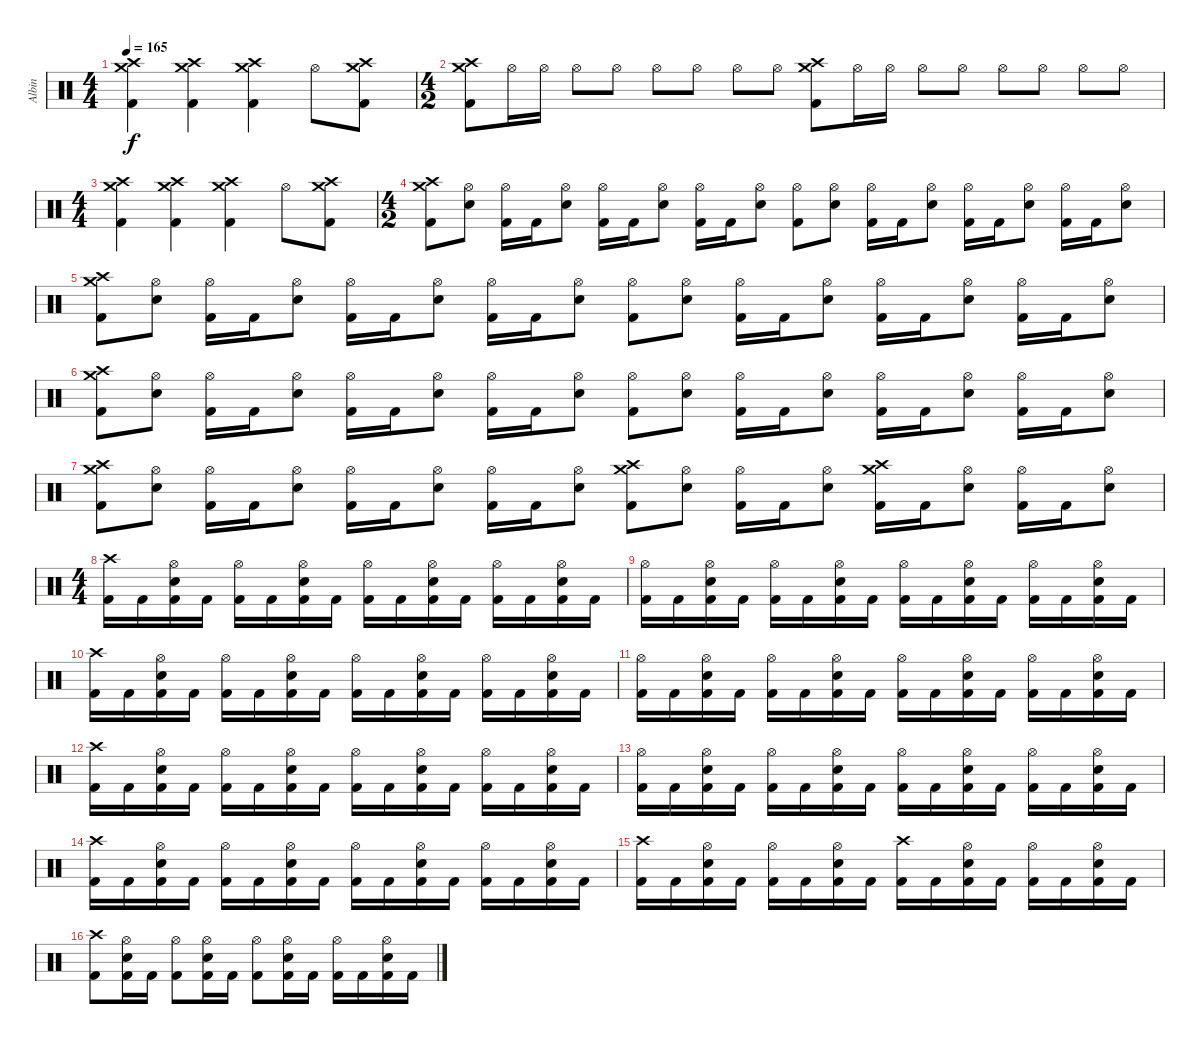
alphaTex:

\track ("Albin" "Albin") {instrument percussion}
\staff {score}
\articulation defaults
\ts (4 4)
\tempo 165
\clef neutral
\ks c
("Kick (hit) 2" "Crash high (hit)" "Crash medium (hit)").4{dy f} ("Kick (hit) 2" "Crash high (hit)" "Crash medium (hit)").4 ("Kick (hit) 2" "Crash high (hit)" "Crash medium (hit)").4 "Hi-Hat (open)".8 ("Kick (hit) 2" "Crash high (hit)" "Crash medium (hit)").8 |
\ts (4 2)
("Kick (hit) 2" "Crash high (hit)" "Crash medium (hit)").8 "Hi-Hat (open)".16 "Hi-Hat (open)".16 "Hi-Hat (open)".8 "Hi-Hat (open)".8 "Hi-Hat (open)".8 "Hi-Hat (open)".8 "Hi-Hat (open)".8 "Hi-Hat (open)".8 ("Kick (hit) 2" "Crash high (hit)" "Crash medium (hit)").8 "Hi-Hat (open)".16 "Hi-Hat (open)".16 "Hi-Hat (open)".8 "Hi-Hat (open)".8 "Hi-Hat (open)".8 "Hi-Hat (open)".8 "Hi-Hat (open)".8 "Hi-Hat (open)".8 |
\ts (4 4)
("Kick (hit) 2" "Crash high (hit)" "Crash medium (hit)").4 ("Kick (hit) 2" "Crash high (hit)" "Crash medium (hit)").4 ("Kick (hit) 2" "Crash high (hit)" "Crash medium (hit)").4 "Hi-Hat (open)".8 ("Kick (hit) 2" "Crash high (hit)" "Crash medium (hit)").8 |
\ts (4 2)
("Kick (hit) 2" "Crash high (hit)" "Crash medium (hit)").8 ("Electric Snare (hit)" "Hi-Hat (open)").8 ("Kick (hit) 2" "Hi-Hat (open)").16 "Kick (hit) 2".16 ("Electric Snare (hit)" "Hi-Hat (open)").8 ("Kick (hit) 2" "Hi-Hat (open)").16 "Kick (hit) 2".16 ("Electric Snare (hit)" "Hi-Hat (open)").8 ("Kick (hit) 2" "Hi-Hat (open)").16 "Kick (hit) 2".16 ("Electric Snare (hit)" "Hi-Hat (open)").8 ("Kick (hit) 2" "Hi-Hat (open)").8 ("Electric Snare (hit)" "Hi-Hat (open)").8 ("Kick (hit) 2" "Hi-Hat (open)").16 "Kick (hit) 2".16 ("Electric Snare (hit)" "Hi-Hat (open)").8 ("Kick (hit) 2" "Hi-Hat (open)").16 "Kick (hit) 2".16 ("Electric Snare (hit)" "Hi-Hat (open)").8 ("Kick (hit) 2" "Hi-Hat (open)").16 "Kick (hit) 2".16 ("Electric Snare (hit)" "Hi-Hat (open)").8 |
("Kick (hit) 2" "Crash high (hit)" "Crash medium (hit)").8 ("Electric Snare (hit)" "Hi-Hat (open)").8 ("Kick (hit) 2" "Hi-Hat (open)").16 "Kick (hit) 2".16 ("Electric Snare (hit)" "Hi-Hat (open)").8 ("Kick (hit) 2" "Hi-Hat (open)").16 "Kick (hit) 2".16 ("Electric Snare (hit)" "Hi-Hat (open)").8 ("Kick (hit) 2" "Hi-Hat (open)").16 "Kick (hit) 2".16 ("Electric Snare (hit)" "Hi-Hat (open)").8 ("Kick (hit) 2" "Hi-Hat (open)").8 ("Electric Snare (hit)" "Hi-Hat (open)").8 ("Kick (hit) 2" "Hi-Hat (open)").16 "Kick (hit) 2".16 ("Electric Snare (hit)" "Hi-Hat (open)").8 ("Kick (hit) 2" "Hi-Hat (open)").16 "Kick (hit) 2".16 ("Electric Snare (hit)" "Hi-Hat (open)").8 ("Kick (hit) 2" "Hi-Hat (open)").16 "Kick (hit) 2".16 ("Electric Snare (hit)" "Hi-Hat (open)").8 |
("Kick (hit) 2" "Crash high (hit)" "Crash medium (hit)").8 ("Electric Snare (hit)" "Hi-Hat (open)").8 ("Kick (hit) 2" "Hi-Hat (open)").16 "Kick (hit) 2".16 ("Electric Snare (hit)" "Hi-Hat (open)").8 ("Kick (hit) 2" "Hi-Hat (open)").16 "Kick (hit) 2".16 ("Electric Snare (hit)" "Hi-Hat (open)").8 ("Kick (hit) 2" "Hi-Hat (open)").16 "Kick (hit) 2".16 ("Electric Snare (hit)" "Hi-Hat (open)").8 ("Kick (hit) 2" "Hi-Hat (open)").8 ("Electric Snare (hit)" "Hi-Hat (open)").8 ("Kick (hit) 2" "Hi-Hat (open)").16 "Kick (hit) 2".16 ("Electric Snare (hit)" "Hi-Hat (open)").8 ("Kick (hit) 2" "Hi-Hat (open)").16 "Kick (hit) 2".16 ("Electric Snare (hit)" "Hi-Hat (open)").8 ("Kick (hit) 2" "Hi-Hat (open)").16 "Kick (hit) 2".16 ("Electric Snare (hit)" "Hi-Hat (open)").8 |
("Kick (hit) 2" "Crash high (hit)" "Crash medium (hit)").8 ("Electric Snare (hit)" "Hi-Hat (open)").8 ("Kick (hit) 2" "Hi-Hat (open)").16 "Kick (hit) 2".16 ("Electric Snare (hit)" "Hi-Hat (open)").8 ("Kick (hit) 2" "Hi-Hat (open)").16 "Kick (hit) 2".16 ("Electric Snare (hit)" "Hi-Hat (open)").8 ("Kick (hit) 2" "Hi-Hat (open)").16 "Kick (hit) 2".16 ("Electric Snare (hit)" "Hi-Hat (open)").8 ("Kick (hit) 2" "Crash high (hit)" "Crash medium (hit)").8 ("Electric Snare (hit)" "Hi-Hat (open)").8 ("Kick (hit) 2" "Hi-Hat (open)").16 "Kick (hit) 2".16 ("Electric Snare (hit)" "Hi-Hat (open)").8 ("Kick (hit) 2" "Crash high (hit)" "Crash medium (hit)").16 "Kick (hit) 2".16 ("Electric Snare (hit)" "Hi-Hat (open)").8 ("Kick (hit) 2" "Hi-Hat (open)").16 "Kick (hit) 2".16 ("Electric Snare (hit)" "Hi-Hat (open)").8 |
\ts (4 4)
("Kick (hit) 2" "Crash high (hit)").16 "Kick (hit) 2".16 ("Kick (hit) 2" "Electric Snare (hit)" "Hi-Hat (open)").16 "Kick (hit) 2".16 ("Kick (hit) 2" "Hi-Hat (open)").16 "Kick (hit) 2".16 ("Kick (hit) 2" "Electric Snare (hit)" "Hi-Hat (open)").16 "Kick (hit) 2".16 ("Kick (hit) 2" "Hi-Hat (open)").16 "Kick (hit) 2".16 ("Kick (hit) 2" "Electric Snare (hit)" "Hi-Hat (open)").16 "Kick (hit) 2".16 ("Kick (hit) 2" "Hi-Hat (open)").16 "Kick (hit) 2".16 ("Kick (hit) 2" "Electric Snare (hit)" "Hi-Hat (open)").16 "Kick (hit) 2".16 |
("Kick (hit) 2" "Hi-Hat (open)").16 "Kick (hit) 2".16 ("Kick (hit) 2" "Electric Snare (hit)" "Hi-Hat (open)").16 "Kick (hit) 2".16 ("Kick (hit) 2" "Hi-Hat (open)").16 "Kick (hit) 2".16 ("Kick (hit) 2" "Electric Snare (hit)" "Hi-Hat (open)").16 "Kick (hit) 2".16 ("Kick (hit) 2" "Hi-Hat (open)").16 "Kick (hit) 2".16 ("Kick (hit) 2" "Electric Snare (hit)" "Hi-Hat (open)").16 "Kick (hit) 2".16 ("Kick (hit) 2" "Hi-Hat (open)").16 "Kick (hit) 2".16 ("Kick (hit) 2" "Electric Snare (hit)" "Hi-Hat (open)").16 "Kick (hit) 2".16 |
("Kick (hit) 2" "Crash high (hit)").16 "Kick (hit) 2".16 ("Kick (hit) 2" "Electric Snare (hit)" "Hi-Hat (open)").16 "Kick (hit) 2".16 ("Kick (hit) 2" "Hi-Hat (open)").16 "Kick (hit) 2".16 ("Kick (hit) 2" "Electric Snare (hit)" "Hi-Hat (open)").16 "Kick (hit) 2".16 ("Kick (hit) 2" "Hi-Hat (open)").16 "Kick (hit) 2".16 ("Kick (hit) 2" "Electric Snare (hit)" "Hi-Hat (open)").16 "Kick (hit) 2".16 ("Kick (hit) 2" "Hi-Hat (open)").16 "Kick (hit) 2".16 ("Kick (hit) 2" "Electric Snare (hit)" "Hi-Hat (open)").16 "Kick (hit) 2".16 |
("Kick (hit) 2" "Hi-Hat (open)").16 "Kick (hit) 2".16 ("Kick (hit) 2" "Electric Snare (hit)" "Hi-Hat (open)").16 "Kick (hit) 2".16 ("Kick (hit) 2" "Hi-Hat (open)").16 "Kick (hit) 2".16 ("Kick (hit) 2" "Electric Snare (hit)" "Hi-Hat (open)").16 "Kick (hit) 2".16 ("Kick (hit) 2" "Hi-Hat (open)").16 "Kick (hit) 2".16 ("Kick (hit) 2" "Electric Snare (hit)" "Hi-Hat (open)").16 "Kick (hit) 2".16 ("Kick (hit) 2" "Hi-Hat (open)").16 "Kick (hit) 2".16 ("Kick (hit) 2" "Electric Snare (hit)" "Hi-Hat (open)").16 "Kick (hit) 2".16 |
("Kick (hit) 2" "Crash high (hit)").16 "Kick (hit) 2".16 ("Kick (hit) 2" "Electric Snare (hit)" "Hi-Hat (open)").16 "Kick (hit) 2".16 ("Kick (hit) 2" "Hi-Hat (open)").16 "Kick (hit) 2".16 ("Kick (hit) 2" "Electric Snare (hit)" "Hi-Hat (open)").16 "Kick (hit) 2".16 ("Kick (hit) 2" "Hi-Hat (open)").16 "Kick (hit) 2".16 ("Kick (hit) 2" "Electric Snare (hit)" "Hi-Hat (open)").16 "Kick (hit) 2".16 ("Kick (hit) 2" "Hi-Hat (open)").16 "Kick (hit) 2".16 ("Kick (hit) 2" "Electric Snare (hit)" "Hi-Hat (open)").16 "Kick (hit) 2".16 |
("Kick (hit) 2" "Hi-Hat (open)").16 "Kick (hit) 2".16 ("Kick (hit) 2" "Electric Snare (hit)" "Hi-Hat (open)").16 "Kick (hit) 2".16 ("Kick (hit) 2" "Hi-Hat (open)").16 "Kick (hit) 2".16 ("Kick (hit) 2" "Electric Snare (hit)" "Hi-Hat (open)").16 "Kick (hit) 2".16 ("Kick (hit) 2" "Hi-Hat (open)").16 "Kick (hit) 2".16 ("Kick (hit) 2" "Electric Snare (hit)" "Hi-Hat (open)").16 "Kick (hit) 2".16 ("Kick (hit) 2" "Hi-Hat (open)").16 "Kick (hit) 2".16 ("Kick (hit) 2" "Electric Snare (hit)" "Hi-Hat (open)").16 "Kick (hit) 2".16 |
("Kick (hit) 2" "Crash high (hit)").16 "Kick (hit) 2".16 ("Kick (hit) 2" "Electric Snare (hit)" "Hi-Hat (open)").16 "Kick (hit) 2".16 ("Kick (hit) 2" "Hi-Hat (open)").16 "Kick (hit) 2".16 ("Kick (hit) 2" "Electric Snare (hit)" "Hi-Hat (open)").16 "Kick (hit) 2".16 ("Kick (hit) 2" "Hi-Hat (open)").16 "Kick (hit) 2".16 ("Kick (hit) 2" "Electric Snare (hit)" "Hi-Hat (open)").16 "Kick (hit) 2".16 ("Kick (hit) 2" "Hi-Hat (open)").16 "Kick (hit) 2".16 ("Kick (hit) 2" "Electric Snare (hit)" "Hi-Hat (open)").16 "Kick (hit) 2".16 |
("Kick (hit) 2" "Crash high (hit)").16 "Kick (hit) 2".16 ("Kick (hit) 2" "Electric Snare (hit)" "Hi-Hat (open)").16 "Kick (hit) 2".16 ("Kick (hit) 2" "Hi-Hat (open)").16 "Kick (hit) 2".16 ("Kick (hit) 2" "Electric Snare (hit)" "Hi-Hat (open)").16 "Kick (hit) 2".16 ("Kick (hit) 2" "Crash high (hit)").16 "Kick (hit) 2".16 ("Kick (hit) 2" "Electric Snare (hit)" "Hi-Hat (open)").16 "Kick (hit) 2".16 ("Kick (hit) 2" "Hi-Hat (open)").16 "Kick (hit) 2".16 ("Kick (hit) 2" "Electric Snare (hit)" "Hi-Hat (open)").16 "Kick (hit) 2".16 |
("Kick (hit) 2" "Crash high (hit)").8 ("Kick (hit) 2" "Electric Snare (hit)" "Hi-Hat (open)").16 "Kick (hit) 2".16 ("Kick (hit) 2" "Hi-Hat (open)").8 ("Kick (hit) 2" "Electric Snare (hit)" "Hi-Hat (open)").16 "Kick (hit) 2".16 ("Kick (hit) 2" "Hi-Hat (open)").8 ("Kick (hit) 2" "Electric Snare (hit)" "Hi-Hat (open)").16 "Kick (hit) 2".16 ("Kick (hit) 2" "Hi-Hat (open)").16 "Kick (hit) 2".16 ("Kick (hit) 2" "Electric Snare (hit)" "Hi-Hat (open)").16 "Kick (hit) 2".16
